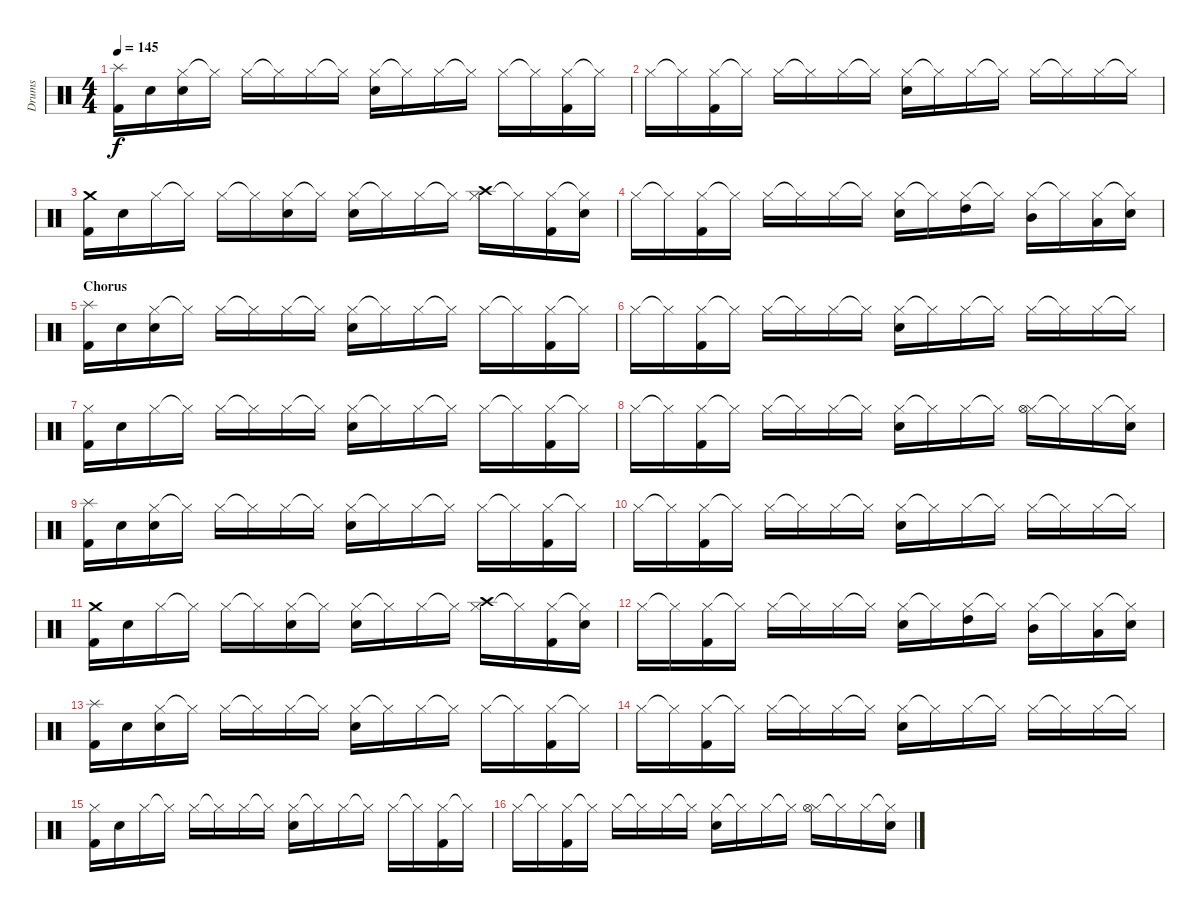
\track ("Drums" "Drums") {instrument percussion}
\staff {score}
\articulation defaults
\ts (4 4)
\tempo 145
\clef neutral
\ks c
("Splash (hit)" "Kick (hit) 2").16{dy f} "Snare (hit)".16 ("Hi-Hat (closed)" "Snare (hit)").16 "Hi-Hat (closed)"{t}.16 "Hi-Hat (closed)".16 "Hi-Hat (closed)"{t}.16 "Hi-Hat (closed)".16 "Hi-Hat (closed)"{t}.16 ("Hi-Hat (closed)" "Snare (hit) 2").16 "Hi-Hat (closed)"{t}.16 "Hi-Hat (closed)".16 "Hi-Hat (closed)"{t}.16 "Hi-Hat (closed)".16 "Hi-Hat (closed)"{t}.16 ("Hi-Hat (closed)" "Kick (hit) 2").16 "Hi-Hat (closed)"{t}.16 |
"Hi-Hat (closed)".16 "Hi-Hat (closed)"{t}.16 ("Hi-Hat (closed)" "Kick (hit) 2").16 "Hi-Hat (closed)"{t}.16 "Hi-Hat (closed)".16 "Hi-Hat (closed)"{t}.16 "Hi-Hat (closed)".16 "Hi-Hat (closed)"{t}.16 ("Hi-Hat (closed)" "Snare (hit) 2").16 "Hi-Hat (closed)"{t}.16 "Hi-Hat (closed)".16 "Hi-Hat (closed)"{t}.16 "Hi-Hat (closed)".16 "Hi-Hat (closed)"{t}.16 "Hi-Hat (closed)".16 "Hi-Hat (closed)"{t}.16 |
("Crash medium (hit)" "Kick (hit) 2").16 "Snare (hit)".16 "Hi-Hat (closed)".16 "Hi-Hat (closed)"{t}.16 "Hi-Hat (closed)".16 "Hi-Hat (closed)"{t}.16 ("Hi-Hat (closed)" "Snare (hit)").16 "Hi-Hat (closed)"{t}.16 ("Hi-Hat (closed)" "Snare (hit) 2").16 "Hi-Hat (closed)"{t}.16 "Hi-Hat (closed)".16 "Hi-Hat (closed)"{t}.16 ("Hi-Hat (closed)" "Crash high (hit)").16 "Hi-Hat (closed)"{t}.16 ("Hi-Hat (closed)" "Kick (hit) 2").16 ("Hi-Hat (closed)"{t} "Snare (hit)").16 |
"Hi-Hat (closed)".16 "Hi-Hat (closed)"{t}.16 ("Hi-Hat (closed)" "Kick (hit) 2").16 "Hi-Hat (closed)"{t}.16 "Hi-Hat (closed)".16 "Hi-Hat (closed)"{t}.16 "Hi-Hat (closed)".16 "Hi-Hat (closed)"{t}.16 ("Hi-Hat (closed)" "Snare (hit) 2").16 "Hi-Hat (closed)"{t}.16 ("Hi-Hat (closed)" "High Tom (hit)").16 "Hi-Hat (closed)"{t}.16 ("Hi-Hat (closed)" "Mid Tom (hit)").16 "Hi-Hat (closed)"{t}.16 ("Hi-Hat (closed)" "Low Tom (hit)").16 ("Hi-Hat (closed)"{t} "Snare (hit)").16 |
\section ("" "Chorus")
("Splash (hit)" "Kick (hit) 2").16 "Snare (hit)".16 ("Hi-Hat (closed)" "Snare (hit)").16 "Hi-Hat (closed)"{t}.16 "Hi-Hat (closed)".16 "Hi-Hat (closed)"{t}.16 "Hi-Hat (closed)".16 "Hi-Hat (closed)"{t}.16 ("Hi-Hat (closed)" "Snare (hit) 2").16 "Hi-Hat (closed)"{t}.16 "Hi-Hat (closed)".16 "Hi-Hat (closed)"{t}.16 "Hi-Hat (closed)".16 "Hi-Hat (closed)"{t}.16 ("Hi-Hat (closed)" "Kick (hit) 2").16 "Hi-Hat (closed)"{t}.16 |
"Hi-Hat (closed)".16 "Hi-Hat (closed)"{t}.16 ("Hi-Hat (closed)" "Kick (hit) 2").16 "Hi-Hat (closed)"{t}.16 "Hi-Hat (closed)".16 "Hi-Hat (closed)"{t}.16 "Hi-Hat (closed)".16 "Hi-Hat (closed)"{t}.16 ("Hi-Hat (closed)" "Snare (hit) 2").16 "Hi-Hat (closed)"{t}.16 "Hi-Hat (closed)".16 "Hi-Hat (closed)"{t}.16 "Hi-Hat (closed)".16 "Hi-Hat (closed)"{t}.16 "Hi-Hat (closed)".16 "Hi-Hat (closed)"{t}.16 |
("Hi-Hat (closed)" "Kick (hit) 2").16 "Snare (hit)".16 "Hi-Hat (closed)".16 "Hi-Hat (closed)"{t}.16 "Hi-Hat (closed)".16 "Hi-Hat (closed)"{t}.16 "Hi-Hat (closed)".16 "Hi-Hat (closed)"{t}.16 ("Hi-Hat (closed)" "Snare (hit) 2").16 "Hi-Hat (closed)"{t}.16 "Hi-Hat (closed)".16 "Hi-Hat (closed)"{t}.16 "Hi-Hat (closed)".16 "Hi-Hat (closed)"{t}.16 ("Hi-Hat (closed)" "Kick (hit) 2").16 "Hi-Hat (closed)"{t}.16 |
"Hi-Hat (closed)".16 "Hi-Hat (closed)"{t}.16 ("Hi-Hat (closed)" "Kick (hit) 2").16 "Hi-Hat (closed)"{t}.16 "Hi-Hat (closed)".16 "Hi-Hat (closed)"{t}.16 "Hi-Hat (closed)".16 "Hi-Hat (closed)"{t}.16 ("Hi-Hat (closed)" "Snare (hit) 2").16 "Hi-Hat (closed)"{t}.16 "Hi-Hat (closed)".16 "Hi-Hat (closed)"{t}.16 ("Hi-Hat (closed)" "Hi-Hat (open)").16 "Hi-Hat (closed)"{t}.16 "Hi-Hat (closed)".16 ("Hi-Hat (closed)"{t} "Snare (hit)").16 |
("Splash (hit)" "Kick (hit) 2").16 "Snare (hit)".16 ("Hi-Hat (closed)" "Snare (hit)").16 "Hi-Hat (closed)"{t}.16 "Hi-Hat (closed)".16 "Hi-Hat (closed)"{t}.16 "Hi-Hat (closed)".16 "Hi-Hat (closed)"{t}.16 ("Hi-Hat (closed)" "Snare (hit) 2").16 "Hi-Hat (closed)"{t}.16 "Hi-Hat (closed)".16 "Hi-Hat (closed)"{t}.16 "Hi-Hat (closed)".16 "Hi-Hat (closed)"{t}.16 ("Hi-Hat (closed)" "Kick (hit) 2").16 "Hi-Hat (closed)"{t}.16 |
"Hi-Hat (closed)".16 "Hi-Hat (closed)"{t}.16 ("Hi-Hat (closed)" "Kick (hit) 2").16 "Hi-Hat (closed)"{t}.16 "Hi-Hat (closed)".16 "Hi-Hat (closed)"{t}.16 "Hi-Hat (closed)".16 "Hi-Hat (closed)"{t}.16 ("Hi-Hat (closed)" "Snare (hit) 2").16 "Hi-Hat (closed)"{t}.16 "Hi-Hat (closed)".16 "Hi-Hat (closed)"{t}.16 "Hi-Hat (closed)".16 "Hi-Hat (closed)"{t}.16 "Hi-Hat (closed)".16 "Hi-Hat (closed)"{t}.16 |
("Crash medium (hit)" "Kick (hit) 2").16 "Snare (hit)".16 "Hi-Hat (closed)".16 "Hi-Hat (closed)"{t}.16 "Hi-Hat (closed)".16 "Hi-Hat (closed)"{t}.16 ("Hi-Hat (closed)" "Snare (hit)").16 "Hi-Hat (closed)"{t}.16 ("Hi-Hat (closed)" "Snare (hit) 2").16 "Hi-Hat (closed)"{t}.16 "Hi-Hat (closed)".16 "Hi-Hat (closed)"{t}.16 ("Hi-Hat (closed)" "Crash high (hit)").16 "Hi-Hat (closed)"{t}.16 ("Hi-Hat (closed)" "Kick (hit) 2").16 ("Hi-Hat (closed)"{t} "Snare (hit)").16 |
"Hi-Hat (closed)".16 "Hi-Hat (closed)"{t}.16 ("Hi-Hat (closed)" "Kick (hit) 2").16 "Hi-Hat (closed)"{t}.16 "Hi-Hat (closed)".16 "Hi-Hat (closed)"{t}.16 "Hi-Hat (closed)".16 "Hi-Hat (closed)"{t}.16 ("Hi-Hat (closed)" "Snare (hit) 2").16 "Hi-Hat (closed)"{t}.16 ("Hi-Hat (closed)" "High Tom (hit)").16 "Hi-Hat (closed)"{t}.16 ("Hi-Hat (closed)" "Mid Tom (hit)").16 "Hi-Hat (closed)"{t}.16 ("Hi-Hat (closed)" "Low Tom (hit)").16 ("Hi-Hat (closed)"{t} "Snare (hit)").16 |
("Splash (hit)" "Kick (hit) 2").16 "Snare (hit)".16 ("Hi-Hat (closed)" "Snare (hit)").16 "Hi-Hat (closed)"{t}.16 "Hi-Hat (closed)".16 "Hi-Hat (closed)"{t}.16 "Hi-Hat (closed)".16 "Hi-Hat (closed)"{t}.16 ("Hi-Hat (closed)" "Snare (hit) 2").16 "Hi-Hat (closed)"{t}.16 "Hi-Hat (closed)".16 "Hi-Hat (closed)"{t}.16 "Hi-Hat (closed)".16 "Hi-Hat (closed)"{t}.16 ("Hi-Hat (closed)" "Kick (hit) 2").16 "Hi-Hat (closed)"{t}.16 |
"Hi-Hat (closed)".16 "Hi-Hat (closed)"{t}.16 ("Hi-Hat (closed)" "Kick (hit) 2").16 "Hi-Hat (closed)"{t}.16 "Hi-Hat (closed)".16 "Hi-Hat (closed)"{t}.16 "Hi-Hat (closed)".16 "Hi-Hat (closed)"{t}.16 ("Hi-Hat (closed)" "Snare (hit) 2").16 "Hi-Hat (closed)"{t}.16 "Hi-Hat (closed)".16 "Hi-Hat (closed)"{t}.16 "Hi-Hat (closed)".16 "Hi-Hat (closed)"{t}.16 "Hi-Hat (closed)".16 "Hi-Hat (closed)"{t}.16 |
("Hi-Hat (closed)" "Kick (hit) 2").16 "Snare (hit)".16 "Hi-Hat (closed)".16 "Hi-Hat (closed)"{t}.16 "Hi-Hat (closed)".16 "Hi-Hat (closed)"{t}.16 "Hi-Hat (closed)".16 "Hi-Hat (closed)"{t}.16 ("Hi-Hat (closed)" "Snare (hit) 2").16 "Hi-Hat (closed)"{t}.16 "Hi-Hat (closed)".16 "Hi-Hat (closed)"{t}.16 "Hi-Hat (closed)".16 "Hi-Hat (closed)"{t}.16 ("Hi-Hat (closed)" "Kick (hit) 2").16 "Hi-Hat (closed)"{t}.16 |
"Hi-Hat (closed)".16 "Hi-Hat (closed)"{t}.16 ("Hi-Hat (closed)" "Kick (hit) 2").16 "Hi-Hat (closed)"{t}.16 "Hi-Hat (closed)".16 "Hi-Hat (closed)"{t}.16 "Hi-Hat (closed)".16 "Hi-Hat (closed)"{t}.16 ("Hi-Hat (closed)" "Snare (hit) 2").16 "Hi-Hat (closed)"{t}.16 "Hi-Hat (closed)".16 "Hi-Hat (closed)"{t}.16 ("Hi-Hat (closed)" "Hi-Hat (open)").16 "Hi-Hat (closed)"{t}.16 "Hi-Hat (closed)".16 ("Hi-Hat (closed)"{t} "Snare (hit)").16
